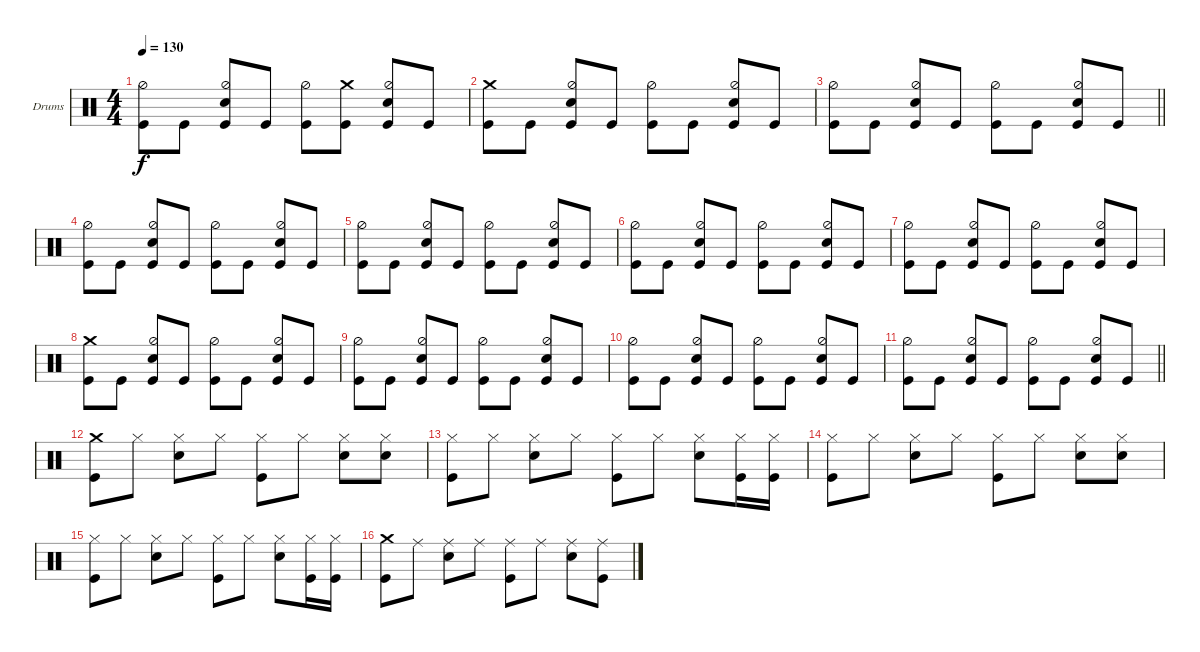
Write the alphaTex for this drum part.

\defaultSystemsLayout 4
\bracketExtendMode groupsimilarinstruments
\firstSystemTrackNameOrientation horizontal
\otherSystemsTrackNameOrientation horizontal
\track ("Drums" "Drums") {instrument percussion}
\staff {score}
\articulation defaults
\ts (4 4)
\tempo 130
\clef neutral
\ks aminor
("Kick (hit)" "Hi-Hat (half)").8{dy f} "Kick (hit)".8 ("Snare (hit) 2" "Hi-Hat (half)" "Kick (hit)").8 "Kick (hit)".8 ("Kick (hit)" "Hi-Hat (half)").8 ("Kick (hit)" "Crash medium (hit)").8 ("Snare (hit) 2" "Hi-Hat (half)" "Kick (hit)").8 "Kick (hit)".8 |
("Kick (hit)" "Crash medium (hit)").8 "Kick (hit)".8 ("Snare (hit) 2" "Hi-Hat (half)" "Kick (hit)").8 "Kick (hit)".8 ("Kick (hit)" "Hi-Hat (half)").8 "Kick (hit)".8 ("Snare (hit) 2" "Hi-Hat (half)" "Kick (hit)").8 "Kick (hit)".8 |
\barLineRight lightlight
("Kick (hit)" "Hi-Hat (half)").8 "Kick (hit)".8 ("Snare (hit) 2" "Hi-Hat (half)" "Kick (hit)").8 "Kick (hit)".8 ("Kick (hit)" "Hi-Hat (half)").8 "Kick (hit)".8 ("Snare (hit) 2" "Hi-Hat (half)" "Kick (hit)").8 "Kick (hit)".8 |
("Kick (hit)" "Hi-Hat (half)").8 "Kick (hit)".8 ("Snare (hit) 2" "Hi-Hat (half)" "Kick (hit)").8 "Kick (hit)".8 ("Kick (hit)" "Hi-Hat (half)").8 "Kick (hit)".8 ("Snare (hit) 2" "Hi-Hat (half)" "Kick (hit)").8 "Kick (hit)".8 |
("Kick (hit)" "Hi-Hat (half)").8 "Kick (hit)".8 ("Snare (hit) 2" "Hi-Hat (half)" "Kick (hit)").8 "Kick (hit)".8 ("Kick (hit)" "Hi-Hat (half)").8 "Kick (hit)".8 ("Snare (hit) 2" "Hi-Hat (half)" "Kick (hit)").8 "Kick (hit)".8 |
("Kick (hit)" "Hi-Hat (half)").8 "Kick (hit)".8 ("Snare (hit) 2" "Hi-Hat (half)" "Kick (hit)").8 "Kick (hit)".8 ("Kick (hit)" "Hi-Hat (half)").8 "Kick (hit)".8 ("Snare (hit) 2" "Hi-Hat (half)" "Kick (hit)").8 "Kick (hit)".8 |
("Kick (hit)" "Hi-Hat (half)").8 "Kick (hit)".8 ("Snare (hit) 2" "Hi-Hat (half)" "Kick (hit)").8 "Kick (hit)".8 ("Kick (hit)" "Hi-Hat (half)").8 "Kick (hit)".8 ("Snare (hit) 2" "Hi-Hat (half)" "Kick (hit)").8 "Kick (hit)".8 |
("Kick (hit)" "Crash medium (hit)").8 "Kick (hit)".8 ("Snare (hit) 2" "Hi-Hat (half)" "Kick (hit)").8 "Kick (hit)".8 ("Kick (hit)" "Hi-Hat (half)").8 "Kick (hit)".8 ("Snare (hit) 2" "Hi-Hat (half)" "Kick (hit)").8 "Kick (hit)".8 |
("Kick (hit)" "Hi-Hat (half)").8 "Kick (hit)".8 ("Snare (hit) 2" "Hi-Hat (half)" "Kick (hit)").8 "Kick (hit)".8 ("Kick (hit)" "Hi-Hat (half)").8 "Kick (hit)".8 ("Snare (hit) 2" "Hi-Hat (half)" "Kick (hit)").8 "Kick (hit)".8 |
("Kick (hit)" "Hi-Hat (half)").8 "Kick (hit)".8 ("Snare (hit) 2" "Hi-Hat (half)" "Kick (hit)").8 "Kick (hit)".8 ("Kick (hit)" "Hi-Hat (half)").8 "Kick (hit)".8 ("Snare (hit) 2" "Hi-Hat (half)" "Kick (hit)").8 "Kick (hit)".8 |
\barLineRight lightlight
("Kick (hit)" "Hi-Hat (half)").8 "Kick (hit)".8 ("Snare (hit) 2" "Hi-Hat (half)" "Kick (hit)").8 "Kick (hit)".8 ("Kick (hit)" "Hi-Hat (half)").8 "Kick (hit)".8 ("Snare (hit) 2" "Hi-Hat (half)" "Kick (hit)").8 "Kick (hit)".8 |
("Kick (hit)" "Crash medium (hit)").8 "Hi-Hat (closed)".8 ("Snare (hit) 2" "Hi-Hat (closed)").8 "Hi-Hat (closed)".8 ("Kick (hit)" "Hi-Hat (closed)").8 "Hi-Hat (closed)".8 ("Snare (hit) 2" "Hi-Hat (closed)").8 ("Snare (hit) 2" "Hi-Hat (closed)").8 |
("Kick (hit)" "Hi-Hat (closed)").8 "Hi-Hat (closed)".8 ("Snare (hit) 2" "Hi-Hat (closed)").8 "Hi-Hat (closed)".8 ("Kick (hit)" "Hi-Hat (closed)").8 "Hi-Hat (closed)".8 ("Snare (hit) 2" "Hi-Hat (closed)").8 ("Kick (hit)" "Hi-Hat (closed)").16 ("Kick (hit)" "Hi-Hat (closed)").16 |
("Kick (hit)" "Hi-Hat (closed)").8 "Hi-Hat (closed)".8 ("Snare (hit) 2" "Hi-Hat (closed)").8 "Hi-Hat (closed)".8 ("Kick (hit)" "Hi-Hat (closed)").8 "Hi-Hat (closed)".8 ("Snare (hit) 2" "Hi-Hat (closed)").8 ("Snare (hit) 2" "Hi-Hat (closed)").8 |
("Kick (hit)" "Hi-Hat (closed)").8 "Hi-Hat (closed)".8 ("Snare (hit) 2" "Hi-Hat (closed)").8 "Hi-Hat (closed)".8 ("Kick (hit)" "Hi-Hat (closed)").8 "Hi-Hat (closed)".8 ("Snare (hit) 2" "Hi-Hat (closed)").8 ("Kick (hit)" "Hi-Hat (closed)").16 ("Kick (hit)" "Hi-Hat (closed)").16 |
("Kick (hit)" "Crash medium (hit)").8 "Ride (middle)".8 ("Snare (hit) 2" "Ride (middle)").8 "Ride (middle)".8 ("Kick (hit)" "Ride (middle)").8 "Ride (middle)".8 ("Snare (hit) 2" "Ride (middle)").8 ("Kick (hit)" "Ride (middle)").8
